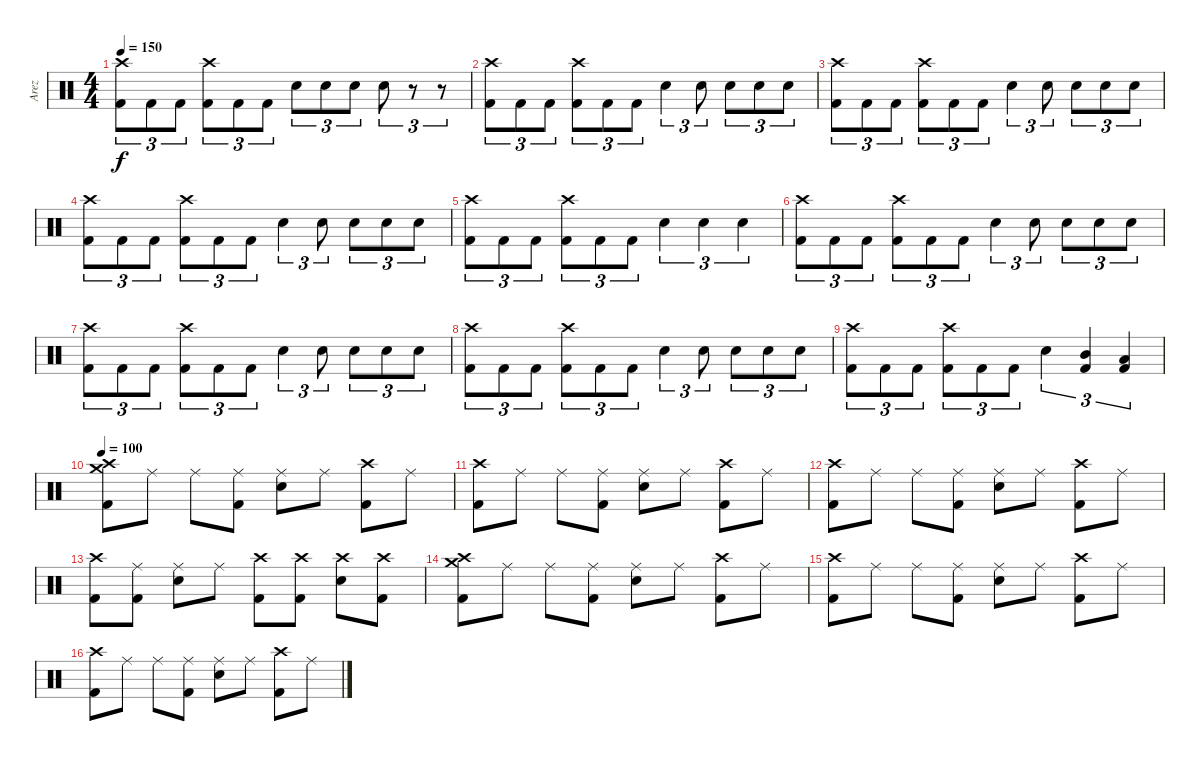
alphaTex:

\track ("Arez" "Arez") {instrument percussion}
\staff {score}
\articulation defaults
\ts (4 4)
\tempo 150
\clef neutral
\ks c
("Crash high (hit)" "Kick (hit) 2").8{tu (3 2) dy f} "Kick (hit) 2".8{tu (3 2)} "Kick (hit) 2".8{tu (3 2)} ("Kick (hit) 2" "Crash high (hit)").8{tu (3 2)} "Kick (hit) 2".8{tu (3 2)} "Kick (hit) 2".8{tu (3 2)} "Electric Snare (hit)".8{tu (3 2)} "Electric Snare (hit)".8{tu (3 2)} "Electric Snare (hit)".8{tu (3 2)} "Electric Snare (hit)".8{tu (3 2)} r.8{tu (3 2)} r.8{tu (3 2)} |
("Crash high (hit)" "Kick (hit) 2").8{tu (3 2)} "Kick (hit) 2".8{tu (3 2)} "Kick (hit) 2".8{tu (3 2)} ("Kick (hit) 2" "Crash high (hit)").8{tu (3 2)} "Kick (hit) 2".8{tu (3 2)} "Kick (hit) 2".8{tu (3 2)} "Electric Snare (hit)".4{tu (3 2)} "Electric Snare (hit)".8{tu (3 2)} "Electric Snare (hit)".8{tu (3 2)} "Electric Snare (hit)".8{tu (3 2)} "Electric Snare (hit)".8{tu (3 2)} |
("Crash high (hit)" "Kick (hit) 2").8{tu (3 2)} "Kick (hit) 2".8{tu (3 2)} "Kick (hit) 2".8{tu (3 2)} ("Kick (hit) 2" "Crash high (hit)").8{tu (3 2)} "Kick (hit) 2".8{tu (3 2)} "Kick (hit) 2".8{tu (3 2)} "Electric Snare (hit)".4{tu (3 2)} "Electric Snare (hit)".8{tu (3 2)} "Electric Snare (hit)".8{tu (3 2)} "Electric Snare (hit)".8{tu (3 2)} "Electric Snare (hit)".8{tu (3 2)} |
("Crash high (hit)" "Kick (hit) 2").8{tu (3 2)} "Kick (hit) 2".8{tu (3 2)} "Kick (hit) 2".8{tu (3 2)} ("Kick (hit) 2" "Crash high (hit)").8{tu (3 2)} "Kick (hit) 2".8{tu (3 2)} "Kick (hit) 2".8{tu (3 2)} "Electric Snare (hit)".4{tu (3 2)} "Electric Snare (hit)".8{tu (3 2)} "Electric Snare (hit)".8{tu (3 2)} "Electric Snare (hit)".8{tu (3 2)} "Electric Snare (hit)".8{tu (3 2)} |
("Crash high (hit)" "Kick (hit) 2").8{tu (3 2)} "Kick (hit) 2".8{tu (3 2)} "Kick (hit) 2".8{tu (3 2)} ("Kick (hit) 2" "Crash high (hit)").8{tu (3 2)} "Kick (hit) 2".8{tu (3 2)} "Kick (hit) 2".8{tu (3 2)} "Electric Snare (hit)".4{tu (3 2)} "Electric Snare (hit)".4{tu (3 2)} "Electric Snare (hit)".4{tu (3 2)} |
("Crash high (hit)" "Kick (hit) 2").8{tu (3 2)} "Kick (hit) 2".8{tu (3 2)} "Kick (hit) 2".8{tu (3 2)} ("Kick (hit) 2" "Crash high (hit)").8{tu (3 2)} "Kick (hit) 2".8{tu (3 2)} "Kick (hit) 2".8{tu (3 2)} "Electric Snare (hit)".4{tu (3 2)} "Electric Snare (hit)".8{tu (3 2)} "Electric Snare (hit)".8{tu (3 2)} "Electric Snare (hit)".8{tu (3 2)} "Electric Snare (hit)".8{tu (3 2)} |
("Crash high (hit)" "Kick (hit) 2").8{tu (3 2)} "Kick (hit) 2".8{tu (3 2)} "Kick (hit) 2".8{tu (3 2)} ("Kick (hit) 2" "Crash high (hit)").8{tu (3 2)} "Kick (hit) 2".8{tu (3 2)} "Kick (hit) 2".8{tu (3 2)} "Electric Snare (hit)".4{tu (3 2)} "Electric Snare (hit)".8{tu (3 2)} "Electric Snare (hit)".8{tu (3 2)} "Electric Snare (hit)".8{tu (3 2)} "Electric Snare (hit)".8{tu (3 2)} |
("Crash high (hit)" "Kick (hit) 2").8{tu (3 2)} "Kick (hit) 2".8{tu (3 2)} "Kick (hit) 2".8{tu (3 2)} ("Kick (hit) 2" "Crash high (hit)").8{tu (3 2)} "Kick (hit) 2".8{tu (3 2)} "Kick (hit) 2".8{tu (3 2)} "Electric Snare (hit)".4{tu (3 2)} "Electric Snare (hit)".8{tu (3 2)} "Electric Snare (hit)".8{tu (3 2)} "Electric Snare (hit)".8{tu (3 2)} "Electric Snare (hit)".8{tu (3 2)} |
("Crash high (hit)" "Kick (hit) 2").8{tu (3 2)} "Kick (hit) 2".8{tu (3 2)} "Kick (hit) 2".8{tu (3 2)} ("Kick (hit) 2" "Crash high (hit)").8{tu (3 2)} "Kick (hit) 2".8{tu (3 2)} "Kick (hit) 2".8{tu (3 2)} "Electric Snare (hit)".4{tu (3 2)} ("Mid Tom (hit)" "Kick (hit) 2").4{tu (3 2)} ("Low Floor Tom (hit)" "Kick (hit) 2").4{tu (3 2)} |
\tempo 100
("Crash high (hit)" "Kick (hit) 2" "Crash medium (hit)").8 "Ride (middle)".8 "Ride (middle)".8 ("Ride (middle)" "Kick (hit) 2").8 ("Electric Snare (hit)" "Ride (middle)").8 "Ride (middle)".8 ("Kick (hit) 2" "Crash high (hit)").8 "Ride (middle)".8 |
("Kick (hit) 2" "Crash high (hit)").8 "Ride (middle)".8 "Ride (middle)".8 ("Ride (middle)" "Kick (hit) 2").8 ("Electric Snare (hit)" "Ride (middle)").8 "Ride (middle)".8 ("Kick (hit) 2" "Crash high (hit)").8 "Ride (middle)".8 |
("Kick (hit) 2" "Crash high (hit)").8 "Ride (middle)".8 "Ride (middle)".8 ("Ride (middle)" "Kick (hit) 2").8 ("Electric Snare (hit)" "Ride (middle)").8 "Ride (middle)".8 ("Kick (hit) 2" "Crash high (hit)").8 "Ride (middle)".8 |
("Kick (hit) 2" "Crash high (hit)").8 ("Ride (middle)" "Kick (hit) 2").8 ("Ride (middle)" "Electric Snare (hit)").8 "Ride (middle)".8 ("Kick (hit) 2" "Crash high (hit)").8 ("Crash high (hit)" "Kick (hit) 2").8 ("Electric Snare (hit)" "Crash high (hit)").8 ("Crash high (hit)" "Kick (hit) 2").8 |
("Crash high (hit)" "Kick (hit) 2" "Crash medium (hit)").8 "Ride (middle)".8 "Ride (middle)".8 ("Ride (middle)" "Kick (hit) 2").8 ("Electric Snare (hit)" "Ride (middle)").8 "Ride (middle)".8 ("Kick (hit) 2" "Crash high (hit)").8 "Ride (middle)".8 |
("Kick (hit) 2" "Crash high (hit)").8 "Ride (middle)".8 "Ride (middle)".8 ("Ride (middle)" "Kick (hit) 2").8 ("Electric Snare (hit)" "Ride (middle)").8 "Ride (middle)".8 ("Kick (hit) 2" "Crash high (hit)").8 "Ride (middle)".8 |
("Kick (hit) 2" "Crash high (hit)").8 "Ride (middle)".8 "Ride (middle)".8 ("Ride (middle)" "Kick (hit) 2").8 ("Electric Snare (hit)" "Ride (middle)").8 "Ride (middle)".8 ("Kick (hit) 2" "Crash high (hit)").8 "Ride (middle)".8
